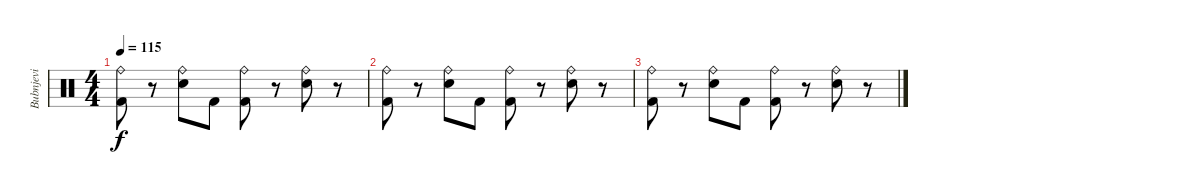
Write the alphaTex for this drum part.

\track ("Bubnjevi" "Bubnjevi") {instrument percussion}
\staff {score}
\articulation defaults
\ts (4 4)
\tempo 115
\clef neutral
\ks c
("Ride (bell)" "Kick (hit) 2").8{dy f} r.8 ("Ride (bell)" "Electric Snare (hit)").8 "Kick (hit) 2".8 ("Ride (bell)" "Kick (hit) 2").8 r.8 ("Ride (bell)" "Electric Snare (hit)").8 r.8 |
("Ride (bell)" "Kick (hit) 2").8 r.8 ("Ride (bell)" "Electric Snare (hit)").8 "Kick (hit) 2".8 ("Ride (bell)" "Kick (hit) 2").8 r.8 ("Ride (bell)" "Electric Snare (hit)").8 r.8 |
("Ride (bell)" "Kick (hit) 2").8 r.8 ("Ride (bell)" "Electric Snare (hit)").8 "Kick (hit) 2".8 ("Ride (bell)" "Kick (hit) 2").8 r.8 ("Ride (bell)" "Electric Snare (hit)").8 r.8
